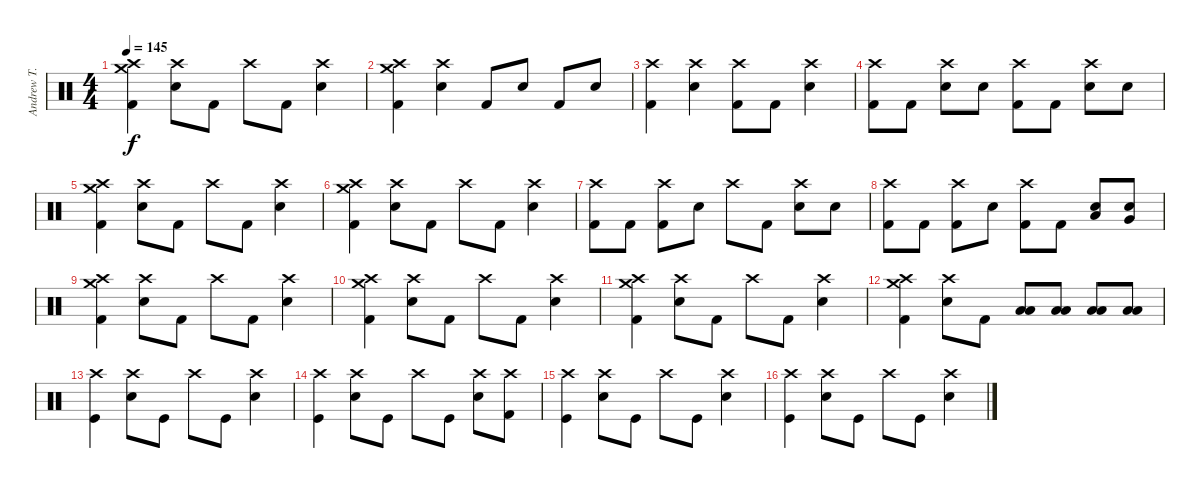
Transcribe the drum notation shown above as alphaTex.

\track ("Andrew T." "Andrew T.") {instrument percussion}
\staff {score}
\articulation defaults
\ts (4 4)
\tempo 145
\clef neutral
\ks c
("Crash high (hit)" "Crash medium (hit)" "Kick (hit) 2").4{dy f} ("Crash high (hit)" "Electric Snare (hit)").8 "Kick (hit) 2".8 "Crash high (hit)".8 "Kick (hit) 2".8 ("Electric Snare (hit)" "Crash high (hit)").4 |
("Crash high (hit)" "Crash medium (hit)" "Kick (hit) 2").4 ("Crash high (hit)" "Electric Snare (hit)").4 "Kick (hit) 2".8 "Electric Snare (hit)".8 "Kick (hit) 2".8 "Electric Snare (hit)".8 |
("Crash high (hit)" "Kick (hit) 2").4 ("Crash high (hit)" "Electric Snare (hit)").4 ("Crash high (hit)" "Kick (hit) 2").8 "Kick (hit) 2".8 ("Crash high (hit)" "Electric Snare (hit)").4 |
("Crash high (hit)" "Kick (hit) 2").8 "Kick (hit) 2".8 ("Crash high (hit)" "Electric Snare (hit)").8 "Electric Snare (hit)".8 ("Crash high (hit)" "Kick (hit) 2").8 "Kick (hit) 2".8 ("Crash high (hit)" "Electric Snare (hit)").8 "Electric Snare (hit)".8 |
("Crash high (hit)" "Crash medium (hit)" "Kick (hit) 2").4 ("Crash high (hit)" "Electric Snare (hit)").8 "Kick (hit) 2".8 "Crash high (hit)".8 "Kick (hit) 2".8 ("Electric Snare (hit)" "Crash high (hit)").4 |
("Crash high (hit)" "Crash medium (hit)" "Kick (hit) 2").4 ("Crash high (hit)" "Electric Snare (hit)").8 "Kick (hit) 2".8 "Crash high (hit)".8 "Kick (hit) 2".8 ("Electric Snare (hit)" "Crash high (hit)").4 |
("Crash high (hit)" "Kick (hit) 2").8 "Kick (hit) 2".8 ("Crash high (hit)" "Kick (hit) 2").8 "Electric Snare (hit)".8 "Crash high (hit)".8 "Kick (hit) 2".8 ("Crash high (hit)" "Electric Snare (hit)").8 "Electric Snare (hit)".8 |
("Crash high (hit)" "Kick (hit) 2").8 "Kick (hit) 2".8 ("Crash high (hit)" "Kick (hit) 2").8 "Electric Snare (hit)".8 ("Crash high (hit)" "Kick (hit) 2").8 "Kick (hit) 2".8 ("Low Tom (hit)" "Electric Snare (hit)").8 ("Very Low Tom (hit)" "Electric Snare (hit)").8 |
("Crash high (hit)" "Crash medium (hit)" "Kick (hit) 2").4 ("Crash high (hit)" "Electric Snare (hit)").8 "Kick (hit) 2".8 "Crash high (hit)".8 "Kick (hit) 2".8 ("Electric Snare (hit)" "Crash high (hit)").4 |
("Crash high (hit)" "Crash medium (hit)" "Kick (hit) 2").4 ("Crash high (hit)" "Electric Snare (hit)").8 "Kick (hit) 2".8 "Crash high (hit)".8 "Kick (hit) 2".8 ("Electric Snare (hit)" "Crash high (hit)").4 |
("Crash high (hit)" "Crash medium (hit)" "Kick (hit) 2").4 ("Crash high (hit)" "Electric Snare (hit)").8 "Kick (hit) 2".8 "Crash high (hit)".8 "Kick (hit) 2".8 ("Electric Snare (hit)" "Crash high (hit)").4 |
("Crash high (hit)" "Crash medium (hit)" "Kick (hit) 2").4 ("Crash high (hit)" "Electric Snare (hit)").8 "Kick (hit) 2".8 ("Low Tom (hit)" "Low Tom (hit)").8 ("Low Tom (hit)" "Low Tom (hit)").8 ("Low Tom (hit)" "Low Floor Tom (hit)").8 ("Low Tom (hit)" "Low Floor Tom (hit)").8 |
("Crash high (hit)" "Kick (hit)").4 ("Crash high (hit)" "Snare (hit) 2").8 "Kick (hit)".8 "Crash high (hit)".8 "Kick (hit)".8 ("Crash high (hit)" "Snare (hit) 2").4 |
("Crash high (hit)" "Kick (hit)").4 ("Crash high (hit)" "Snare (hit) 2").8 "Kick (hit)".8 "Crash high (hit)".8 "Kick (hit)".8 ("Crash high (hit)" "Snare (hit) 2").8 ("Kick (hit) 2" "Crash high (hit)").8 |
("Crash high (hit)" "Kick (hit)").4 ("Crash high (hit)" "Snare (hit) 2").8 "Kick (hit)".8 "Crash high (hit)".8 "Kick (hit)".8 ("Crash high (hit)" "Snare (hit) 2").4 |
("Crash high (hit)" "Kick (hit)").4 ("Crash high (hit)" "Snare (hit) 2").8 "Kick (hit)".8 "Crash high (hit)".8 "Kick (hit)".8 ("Crash high (hit)" "Snare (hit) 2").4
